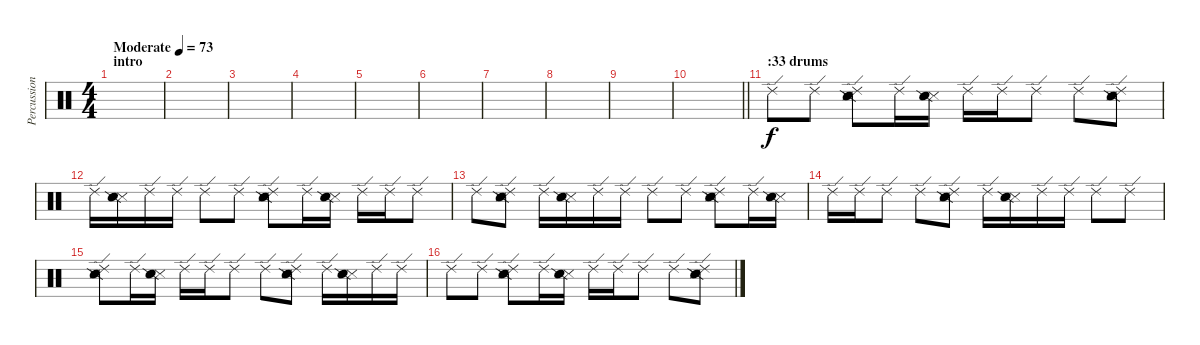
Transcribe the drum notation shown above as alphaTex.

\track ("Percussion" "Percussion") {instrument percussion}
\staff {score}
\articulation defaults
\ts (4 4)
\section ("" "intro")
\tempo (73 "Moderate")
\clef neutral
\ks c
|
|
|
|
|
|
|
|
|
\barLineRight lightlight
|
\section ("" ":33 drums")
"Ride (edge) 2".8 "Ride (edge) 2".8 ("Ride (edge) 2" "Snare (side stick) 3" "Snare (side stick) 2").8 "Ride (edge) 2".16 ("Snare (side stick) 3" "Snare (side stick) 2").16 "Ride (edge) 2".16 "Ride (edge) 2".16 "Ride (edge) 2".8 "Ride (edge) 2".8 ("Ride (edge) 2" "Snare (side stick) 3" "Snare (side stick) 2").8 |
"Ride (edge) 2".16 ("Snare (side stick) 3" "Snare (side stick) 2").16 "Ride (edge) 2".16 "Ride (edge) 2".16 "Ride (edge) 2".8 "Ride (edge) 2".8 ("Ride (edge) 2" "Snare (side stick) 3" "Snare (side stick) 2").8 "Ride (edge) 2".16 ("Snare (side stick) 3" "Snare (side stick) 2").16 "Ride (edge) 2".16 "Ride (edge) 2".16 "Ride (edge) 2".8 |
"Ride (edge) 2".8 ("Ride (edge) 2" "Snare (side stick) 3" "Snare (side stick) 2").8 "Ride (edge) 2".16 ("Snare (side stick) 3" "Snare (side stick) 2").16 "Ride (edge) 2".16 "Ride (edge) 2".16 "Ride (edge) 2".8 "Ride (edge) 2".8 ("Ride (edge) 2" "Snare (side stick) 3" "Snare (side stick) 2").8 "Ride (edge) 2".16 ("Snare (side stick) 3" "Snare (side stick) 2").16 |
"Ride (edge) 2".16 "Ride (edge) 2".16 "Ride (edge) 2".8 "Ride (edge) 2".8 ("Ride (edge) 2" "Snare (side stick) 3" "Snare (side stick) 2").8 "Ride (edge) 2".16 ("Snare (side stick) 3" "Snare (side stick) 2").16 "Ride (edge) 2".16 "Ride (edge) 2".16 "Ride (edge) 2".8 "Ride (edge) 2".8 |
("Ride (edge) 2" "Snare (side stick) 3" "Snare (side stick) 2").8 "Ride (edge) 2".16 ("Snare (side stick) 3" "Snare (side stick) 2").16 "Ride (edge) 2".16 "Ride (edge) 2".16 "Ride (edge) 2".8 "Ride (edge) 2".8 ("Ride (edge) 2" "Snare (side stick) 3" "Snare (side stick) 2").8 "Ride (edge) 2".16 ("Snare (side stick) 3" "Snare (side stick) 2").16 "Ride (edge) 2".16 "Ride (edge) 2".16 |
"Ride (edge) 2".8 "Ride (edge) 2".8 ("Ride (edge) 2" "Snare (side stick) 3" "Snare (side stick) 2").8 "Ride (edge) 2".16 ("Snare (side stick) 3" "Snare (side stick) 2").16 "Ride (edge) 2".16 "Ride (edge) 2".16 "Ride (edge) 2".8 "Ride (edge) 2".8 ("Ride (edge) 2" "Snare (side stick) 3" "Snare (side stick) 2").8
